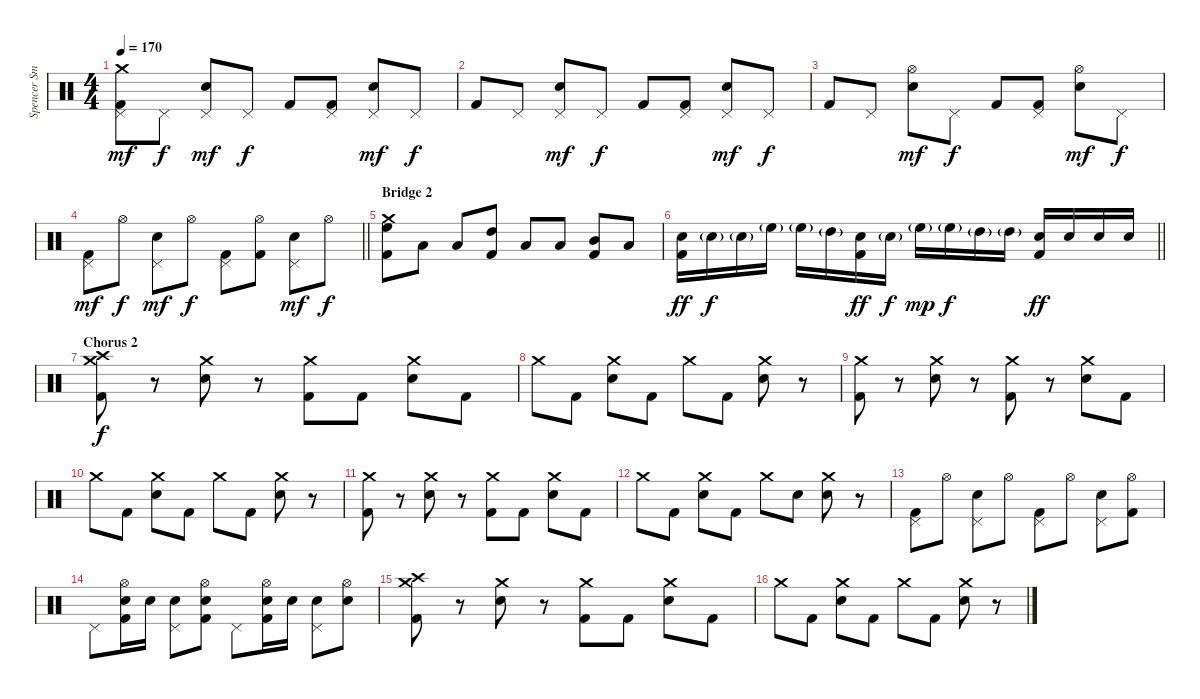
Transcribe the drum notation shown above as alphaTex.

\track ("Spencer Smith (Drums)" "Spencer Sm") {instrument percussion}
\staff {score}
\articulation defaults
\ts (4 4)
\tempo 170
\clef neutral
\ks c
("Crash medium (hit)" "Pedal Hi-Hat (hit)" "Kick (hit) 2").8{dy mf} "Pedal Hi-Hat (hit)".8{dy f} ("Pedal Hi-Hat (hit)" "Electric Snare (hit)").8{dy mf} "Pedal Hi-Hat (hit)".8{dy f} "Kick (hit) 2".8 ("Pedal Hi-Hat (hit)" "Kick (hit) 2").8 ("Pedal Hi-Hat (hit)" "Electric Snare (hit)").8{dy mf} "Pedal Hi-Hat (hit)".8{dy f} |
"Kick (hit) 2".8 "Pedal Hi-Hat (hit)".8 ("Pedal Hi-Hat (hit)" "Electric Snare (hit)").8{dy mf} "Pedal Hi-Hat (hit)".8{dy f} "Kick (hit) 2".8 ("Pedal Hi-Hat (hit)" "Kick (hit) 2").8 ("Pedal Hi-Hat (hit)" "Electric Snare (hit)").8{dy mf} "Pedal Hi-Hat (hit)".8{dy f} |
"Kick (hit) 2".8 "Pedal Hi-Hat (hit)".8 ("Hi-Hat (open)" "Electric Snare (hit)").8{dy mf} "Pedal Hi-Hat (hit)".8{dy f} "Kick (hit) 2".8 ("Pedal Hi-Hat (hit)" "Kick (hit) 2").8 ("Hi-Hat (open)" "Electric Snare (hit)").8{dy mf} "Pedal Hi-Hat (hit)".8{dy f} |
\barLineRight lightlight
("Pedal Hi-Hat (hit)" "Kick (hit) 2").8{dy mf} "Hi-Hat (open)".8{dy f} ("Pedal Hi-Hat (hit)" "Electric Snare (hit)").8{dy mf} "Hi-Hat (open)".8{dy f} ("Pedal Hi-Hat (hit)" "Kick (hit) 2").8 ("Hi-Hat (open)" "Kick (hit) 2").8 ("Pedal Hi-Hat (hit)" "Electric Snare (hit)").8{dy mf} "Hi-Hat (open)".8{dy f} |
\section ("" "Bridge 2")
("Crash medium (hit)" "High Floor Tom (hit)" "Kick (hit) 2").8 "Low Tom (hit)".8 "Low Tom (hit)".8 ("High Tom (hit)" "Kick (hit) 2").8 "Low Tom (hit)".8 "Low Tom (hit)".8 ("Mid Tom (hit)" "Kick (hit) 2").8 "Low Tom (hit)".8 |
\barLineRight lightlight
("Electric Snare (hit)" "Kick (hit) 2").16{dy ff} "Electric Snare (hit)"{g}.16{dy f} "Electric Snare (hit)"{g}.16 "High Floor Tom (hit)"{g}.16 "High Floor Tom (hit)"{g}.16 "High Tom (hit)"{g}.16 ("Electric Snare (hit)" "Kick (hit) 2").16{dy ff} "Electric Snare (hit)"{g}.16{dy f} "High Floor Tom (hit)"{g}.16{dy mp} "High Floor Tom (hit)"{g}.16{dy f} "High Tom (hit)"{g}.16 "High Tom (hit)"{g}.16 ("Electric Snare (hit)" "Kick (hit) 2").16{dy ff} "Electric Snare (hit)".16 "Electric Snare (hit)".16 "Electric Snare (hit)".16 |
\section ("" "Chorus 2")
("Crash medium (hit)" "Crash high (hit)" "Kick (hit) 2").8{dy f} r.8 ("Crash medium (hit)" "Electric Snare (hit)").8 r.8 ("Crash medium (hit)" "Kick (hit) 2").8 "Kick (hit) 2".8 ("Crash medium (hit)" "Electric Snare (hit)").8 "Kick (hit) 2".8 |
"Crash medium (hit)".8 "Kick (hit) 2".8 ("Crash medium (hit)" "Electric Snare (hit)").8 "Kick (hit) 2".8 "Crash medium (hit)".8 "Kick (hit) 2".8 ("Crash medium (hit)" "Electric Snare (hit)").8 r.8 |
("Crash medium (hit)" "Kick (hit) 2").8 r.8 ("Crash medium (hit)" "Electric Snare (hit)").8 r.8 ("Crash medium (hit)" "Kick (hit) 2").8 r.8 ("Crash medium (hit)" "Electric Snare (hit)").8 "Kick (hit) 2".8 |
"Crash medium (hit)".8 "Kick (hit) 2".8 ("Crash medium (hit)" "Electric Snare (hit)").8 "Kick (hit) 2".8 "Crash medium (hit)".8 "Kick (hit) 2".8 ("Crash medium (hit)" "Electric Snare (hit)").8 r.8 |
("Crash medium (hit)" "Kick (hit) 2").8 r.8 ("Crash medium (hit)" "Electric Snare (hit)").8 r.8 ("Crash medium (hit)" "Kick (hit) 2").8 "Kick (hit) 2".8 ("Crash medium (hit)" "Electric Snare (hit)").8 "Kick (hit) 2".8 |
"Crash medium (hit)".8 "Kick (hit) 2".8 ("Crash medium (hit)" "Electric Snare (hit)").8 "Kick (hit) 2".8 "Crash medium (hit)".8 "Electric Snare (hit)".8 ("Crash medium (hit)" "Electric Snare (hit)").8 r.8 |
("Pedal Hi-Hat (hit)" "Kick (hit) 2").8 "Hi-Hat (open)".8 ("Pedal Hi-Hat (hit)" "Electric Snare (hit)").8 "Hi-Hat (open)".8 ("Pedal Hi-Hat (hit)" "Kick (hit) 2").8 "Hi-Hat (open)".8 ("Pedal Hi-Hat (hit)" "Electric Snare (hit)").8 ("Hi-Hat (open)" "Kick (hit) 2").8 |
"Pedal Hi-Hat (hit)".8 ("Hi-Hat (open)" "Electric Snare (hit)" "Kick (hit) 2").16 "Electric Snare (hit)".16 ("Pedal Hi-Hat (hit)" "Electric Snare (hit)").8 ("Hi-Hat (open)" "Electric Snare (hit)" "Kick (hit) 2").8 "Pedal Hi-Hat (hit)".8 ("Hi-Hat (open)" "Electric Snare (hit)" "Kick (hit) 2").16 "Electric Snare (hit)".16 ("Pedal Hi-Hat (hit)" "Electric Snare (hit)").8 ("Hi-Hat (open)" "Electric Snare (hit)").8 |
("Crash medium (hit)" "Crash high (hit)" "Kick (hit) 2").8 r.8 ("Crash medium (hit)" "Electric Snare (hit)").8 r.8 ("Crash medium (hit)" "Kick (hit) 2").8 "Kick (hit) 2".8 ("Crash medium (hit)" "Electric Snare (hit)").8 "Kick (hit) 2".8 |
"Crash medium (hit)".8 "Kick (hit) 2".8 ("Crash medium (hit)" "Electric Snare (hit)").8 "Kick (hit) 2".8 "Crash medium (hit)".8 "Kick (hit) 2".8 ("Crash medium (hit)" "Electric Snare (hit)").8 r.8
